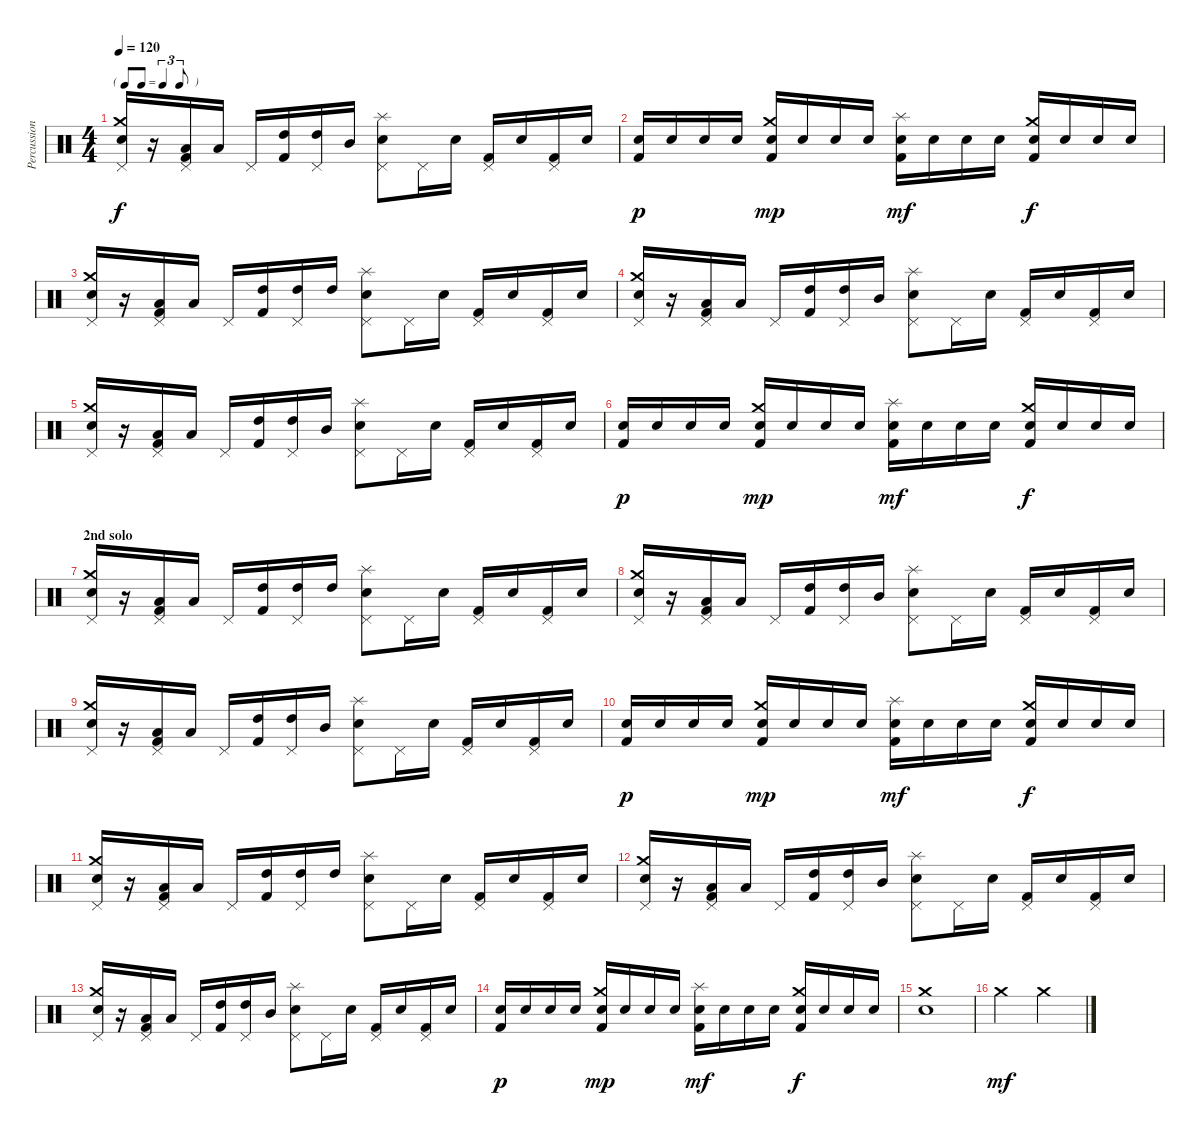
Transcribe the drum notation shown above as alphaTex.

\track ("Percussions" "Percussion") {instrument percussion}
\staff {score}
\articulation defaults
\ts (4 4)
\tf triplet8th
\tempo 120
\clef neutral
\ks c
("Electric Snare (hit)" "Crash medium (hit)" "Pedal Hi-Hat (hit)").16{dy f} r.16 ("Kick (hit) 2" "Low Tom (hit)" "Pedal Hi-Hat (hit)").16 "Low Tom (hit)".16 "Pedal Hi-Hat (hit)".16 ("Kick (hit) 2" "High Tom (hit)").16 ("High Tom (hit)" "Pedal Hi-Hat (hit)").16 "Mid Tom (hit)".16 ("Electric Snare (hit)" "Splash (hit)" "Pedal Hi-Hat (hit)").8 "Pedal Hi-Hat (hit)".16 "Electric Snare (hit)".16 ("Kick (hit) 2" "Pedal Hi-Hat (hit)").16 "Electric Snare (hit)".16 ("Kick (hit) 2" "Pedal Hi-Hat (hit)").16 "Snare (hit) 2".16 |
("Electric Snare (hit)" "Kick (hit) 2").16{dy p} "Electric Snare (hit)".16 "Electric Snare (hit)".16 "Electric Snare (hit)".16 ("Electric Snare (hit)" "Kick (hit) 2" "Crash medium (hit)").16{dy mp} "Electric Snare (hit)".16 "Electric Snare (hit)".16 "Electric Snare (hit)".16 ("Electric Snare (hit)" "Kick (hit) 2" "Splash (hit)").16{dy mf} "Electric Snare (hit)".16 "Electric Snare (hit)".16 "Electric Snare (hit)".16 ("Electric Snare (hit)" "Kick (hit) 2" "Crash medium (hit)").16{dy f} "Electric Snare (hit)".16 "Electric Snare (hit)".16 "Electric Snare (hit)".16 |
("Electric Snare (hit)" "Crash medium (hit)" "Pedal Hi-Hat (hit)").16 r.16 ("Kick (hit) 2" "Low Tom (hit)" "Pedal Hi-Hat (hit)").16 "Low Tom (hit)".16 "Pedal Hi-Hat (hit)".16 ("Kick (hit) 2" "High Tom (hit)").16 ("High Tom (hit)" "Pedal Hi-Hat (hit)").16 "High Tom (hit)".16 ("Electric Snare (hit)" "Splash (hit)" "Pedal Hi-Hat (hit)").8 "Pedal Hi-Hat (hit)".16 "Electric Snare (hit)".16 ("Kick (hit) 2" "Pedal Hi-Hat (hit)").16 "Electric Snare (hit)".16 ("Kick (hit) 2" "Pedal Hi-Hat (hit)").16 "Snare (hit) 2".16 |
("Electric Snare (hit)" "Crash medium (hit)" "Pedal Hi-Hat (hit)").16 r.16 ("Kick (hit) 2" "Low Tom (hit)" "Pedal Hi-Hat (hit)").16 "Low Tom (hit)".16 "Pedal Hi-Hat (hit)".16 ("Kick (hit) 2" "High Tom (hit)").16 ("High Tom (hit)" "Pedal Hi-Hat (hit)").16 "Mid Tom (hit)".16 ("Electric Snare (hit)" "Splash (hit)" "Pedal Hi-Hat (hit)").8 "Pedal Hi-Hat (hit)".16 "Electric Snare (hit)".16 ("Kick (hit) 2" "Pedal Hi-Hat (hit)").16 "Electric Snare (hit)".16 ("Kick (hit) 2" "Pedal Hi-Hat (hit)").16 "Snare (hit) 2".16 |
("Electric Snare (hit)" "Crash medium (hit)" "Pedal Hi-Hat (hit)").16 r.16 ("Kick (hit) 2" "Low Tom (hit)" "Pedal Hi-Hat (hit)").16 "Low Tom (hit)".16 "Pedal Hi-Hat (hit)".16 ("Kick (hit) 2" "High Tom (hit)").16 ("High Tom (hit)" "Pedal Hi-Hat (hit)").16 "Mid Tom (hit)".16 ("Electric Snare (hit)" "Splash (hit)" "Pedal Hi-Hat (hit)").8 "Pedal Hi-Hat (hit)".16 "Electric Snare (hit)".16 ("Kick (hit) 2" "Pedal Hi-Hat (hit)").16 "Electric Snare (hit)".16 ("Kick (hit) 2" "Pedal Hi-Hat (hit)").16 "Snare (hit) 2".16 |
("Electric Snare (hit)" "Kick (hit) 2").16{dy p} "Electric Snare (hit)".16 "Electric Snare (hit)".16 "Electric Snare (hit)".16 ("Electric Snare (hit)" "Kick (hit) 2" "Crash medium (hit)").16{dy mp} "Electric Snare (hit)".16 "Electric Snare (hit)".16 "Electric Snare (hit)".16 ("Electric Snare (hit)" "Kick (hit) 2" "Splash (hit)").16{dy mf} "Electric Snare (hit)".16 "Electric Snare (hit)".16 "Electric Snare (hit)".16 ("Electric Snare (hit)" "Kick (hit) 2" "Crash medium (hit)").16{dy f} "Electric Snare (hit)".16 "Electric Snare (hit)".16 "Electric Snare (hit)".16 |
\section ("" "2nd solo")
("Electric Snare (hit)" "Crash medium (hit)" "Pedal Hi-Hat (hit)").16 r.16 ("Kick (hit) 2" "Low Tom (hit)" "Pedal Hi-Hat (hit)").16 "Low Tom (hit)".16 "Pedal Hi-Hat (hit)".16 ("Kick (hit) 2" "High Tom (hit)").16 ("High Tom (hit)" "Pedal Hi-Hat (hit)").16 "High Tom (hit)".16 ("Electric Snare (hit)" "Splash (hit)" "Pedal Hi-Hat (hit)").8 "Pedal Hi-Hat (hit)".16 "Electric Snare (hit)".16 ("Kick (hit) 2" "Pedal Hi-Hat (hit)").16 "Electric Snare (hit)".16 ("Kick (hit) 2" "Pedal Hi-Hat (hit)").16 "Snare (hit) 2".16 |
\section ("" "")
("Electric Snare (hit)" "Crash medium (hit)" "Pedal Hi-Hat (hit)").16 r.16 ("Kick (hit) 2" "Low Tom (hit)" "Pedal Hi-Hat (hit)").16 "Low Tom (hit)".16 "Pedal Hi-Hat (hit)".16 ("Kick (hit) 2" "High Tom (hit)").16 ("High Tom (hit)" "Pedal Hi-Hat (hit)").16 "Mid Tom (hit)".16 ("Electric Snare (hit)" "Splash (hit)" "Pedal Hi-Hat (hit)").8 "Pedal Hi-Hat (hit)".16 "Electric Snare (hit)".16 ("Kick (hit) 2" "Pedal Hi-Hat (hit)").16 "Electric Snare (hit)".16 ("Kick (hit) 2" "Pedal Hi-Hat (hit)").16 "Snare (hit) 2".16 |
("Electric Snare (hit)" "Crash medium (hit)" "Pedal Hi-Hat (hit)").16 r.16 ("Kick (hit) 2" "Low Tom (hit)" "Pedal Hi-Hat (hit)").16 "Low Tom (hit)".16 "Pedal Hi-Hat (hit)".16 ("Kick (hit) 2" "High Tom (hit)").16 ("High Tom (hit)" "Pedal Hi-Hat (hit)").16 "Mid Tom (hit)".16 ("Electric Snare (hit)" "Splash (hit)" "Pedal Hi-Hat (hit)").8 "Pedal Hi-Hat (hit)".16 "Electric Snare (hit)".16 ("Kick (hit) 2" "Pedal Hi-Hat (hit)").16 "Electric Snare (hit)".16 ("Kick (hit) 2" "Pedal Hi-Hat (hit)").16 "Snare (hit) 2".16 |
("Electric Snare (hit)" "Kick (hit) 2").16{dy p} "Electric Snare (hit)".16 "Electric Snare (hit)".16 "Electric Snare (hit)".16 ("Electric Snare (hit)" "Kick (hit) 2" "Crash medium (hit)").16{dy mp} "Electric Snare (hit)".16 "Electric Snare (hit)".16 "Electric Snare (hit)".16 ("Electric Snare (hit)" "Kick (hit) 2" "Splash (hit)").16{dy mf} "Electric Snare (hit)".16 "Electric Snare (hit)".16 "Electric Snare (hit)".16 ("Electric Snare (hit)" "Kick (hit) 2" "Crash medium (hit)").16{dy f} "Electric Snare (hit)".16 "Electric Snare (hit)".16 "Electric Snare (hit)".16 |
("Electric Snare (hit)" "Crash medium (hit)" "Pedal Hi-Hat (hit)").16 r.16 ("Kick (hit) 2" "Low Tom (hit)" "Pedal Hi-Hat (hit)").16 "Low Tom (hit)".16 "Pedal Hi-Hat (hit)".16 ("Kick (hit) 2" "High Tom (hit)").16 ("High Tom (hit)" "Pedal Hi-Hat (hit)").16 "High Tom (hit)".16 ("Electric Snare (hit)" "Splash (hit)" "Pedal Hi-Hat (hit)").8 "Pedal Hi-Hat (hit)".16 "Electric Snare (hit)".16 ("Kick (hit) 2" "Pedal Hi-Hat (hit)").16 "Electric Snare (hit)".16 ("Kick (hit) 2" "Pedal Hi-Hat (hit)").16 "Snare (hit) 2".16 |
("Electric Snare (hit)" "Crash medium (hit)" "Pedal Hi-Hat (hit)").16 r.16 ("Kick (hit) 2" "Low Tom (hit)" "Pedal Hi-Hat (hit)").16 "Low Tom (hit)".16 "Pedal Hi-Hat (hit)".16 ("Kick (hit) 2" "High Tom (hit)").16 ("High Tom (hit)" "Pedal Hi-Hat (hit)").16 "Mid Tom (hit)".16 ("Electric Snare (hit)" "Splash (hit)" "Pedal Hi-Hat (hit)").8 "Pedal Hi-Hat (hit)".16 "Electric Snare (hit)".16 ("Kick (hit) 2" "Pedal Hi-Hat (hit)").16 "Electric Snare (hit)".16 ("Kick (hit) 2" "Pedal Hi-Hat (hit)").16 "Snare (hit) 2".16 |
("Electric Snare (hit)" "Crash medium (hit)" "Pedal Hi-Hat (hit)").16 r.16 ("Kick (hit) 2" "Low Tom (hit)" "Pedal Hi-Hat (hit)").16 "Low Tom (hit)".16 "Pedal Hi-Hat (hit)".16 ("Kick (hit) 2" "High Tom (hit)").16 ("High Tom (hit)" "Pedal Hi-Hat (hit)").16 "Mid Tom (hit)".16 ("Electric Snare (hit)" "Splash (hit)" "Pedal Hi-Hat (hit)").8 "Pedal Hi-Hat (hit)".16 "Electric Snare (hit)".16 ("Kick (hit) 2" "Pedal Hi-Hat (hit)").16 "Electric Snare (hit)".16 ("Kick (hit) 2" "Pedal Hi-Hat (hit)").16 "Snare (hit) 2".16 |
("Electric Snare (hit)" "Kick (hit) 2").16{dy p} "Electric Snare (hit)".16 "Electric Snare (hit)".16 "Electric Snare (hit)".16 ("Electric Snare (hit)" "Kick (hit) 2" "Crash medium (hit)").16{dy mp} "Electric Snare (hit)".16 "Electric Snare (hit)".16 "Electric Snare (hit)".16 ("Electric Snare (hit)" "Kick (hit) 2" "Splash (hit)").16{dy mf} "Electric Snare (hit)".16 "Electric Snare (hit)".16 "Electric Snare (hit)".16 ("Electric Snare (hit)" "Kick (hit) 2" "Crash medium (hit)").16{dy f} "Electric Snare (hit)".16 "Electric Snare (hit)".16 "Electric Snare (hit)".16 |
("Electric Snare (hit)" "Crash medium (hit)").1 |
"Crash medium (hit)".2{dy mf} "Crash medium (hit)".2
